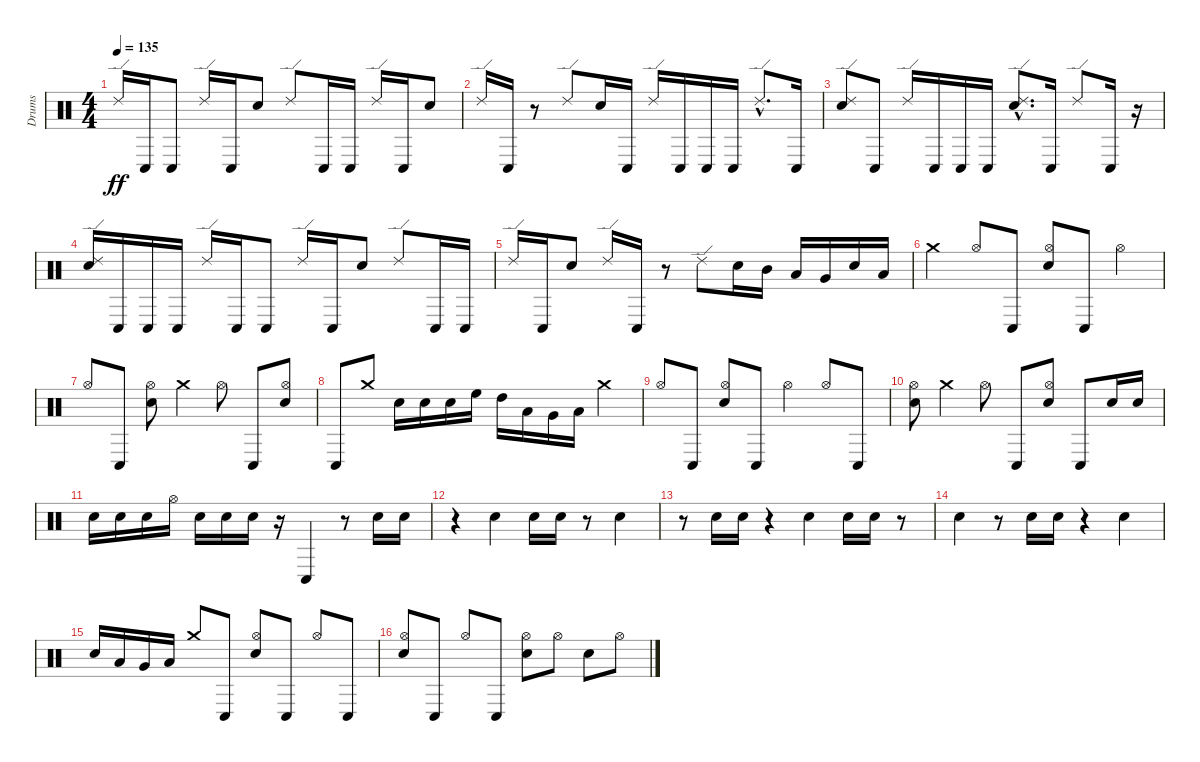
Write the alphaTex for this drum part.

\track ("Drums" "Drums") {instrument percussion}
\staff {score}
\articulation defaults
\ts (4 4)
\tempo 135
\clef neutral
\ks c "Ride (edge) 2".16{dy ff} "Conga low (hit)".16 "Conga low (hit)".8 "Ride (edge) 2".16 "Conga low (hit)".16 "Electric Snare (hit)".8 "Ride (edge) 2".8 "Conga low (hit)".16 "Conga low (hit)".16 "Ride (edge) 2".16 "Conga low (hit)".16 "Electric Snare (hit)".8
|
"Ride (edge) 2".16 "Conga low (hit)".16 r.8 "Ride (edge) 2".8 "Electric Snare (hit)".16 "Conga low (hit)".16 "Ride (edge) 2".16 "Conga low (hit)".16 "Conga low (hit)".16 "Conga low (hit)".16 "Ride (edge) 2"{hac}.8{d} "Conga low (hit)".16 |
("Electric Snare (hit)" "Ride (edge) 2").8 "Conga low (hit)".8 "Ride (edge) 2".16 "Conga low (hit)".16 "Conga low (hit)".16 "Conga low (hit)".16 ("Electric Snare (hit)"{hac} "Ride (edge) 2"{hac}).8{d} "Conga low (hit)".16 "Ride (edge) 2".8 "Conga low (hit)".16 r.16 |
("Electric Snare (hit)" "Ride (edge) 2").16 "Conga low (hit)".16 "Conga low (hit)".16 "Conga low (hit)".16 "Ride (edge) 2".16 "Conga low (hit)".16 "Conga low (hit)".8 "Ride (edge) 2".16 "Conga low (hit)".16 "Electric Snare (hit)".8 "Ride (edge) 2".8 "Conga low (hit)".16 "Conga low (hit)".16 |
"Ride (edge) 2".16 "Conga low (hit)".16 "Electric Snare (hit)".8 "Ride (edge) 2".16 "Conga low (hit)".16 r.8 "Ride (edge) 2".8 "Electric Snare (hit)".16 "Mid Tom (hit)".16 "Low Tom (hit)".16 "Very Low Tom (hit)".16 "Electric Snare (hit)".16 "Low Floor Tom (hit)".16 |
"Crash medium (hit)".4 "Hi-Hat (open)".8 "Conga low (hit)".8 ("Electric Snare (hit)" "Hi-Hat (open)").8 "Conga low (hit)".8 "Hi-Hat (open)".4 |
"Hi-Hat (open)".8 "Conga low (hit)".8 ("Electric Snare (hit)" "Hi-Hat (open)").8 "Crash medium (hit)".4 "Hi-Hat (open)".8 "Conga low (hit)".8 ("Electric Snare (hit)" "Hi-Hat (open)").8 |
"Conga low (hit)".8 "Crash medium (hit)".8 "Electric Snare (hit)".16 "Electric Snare (hit)".16 "Electric Snare (hit)".16 "High Floor Tom (hit)".16 "High Tom (hit)".16 "Low Tom (hit)".16 "Very Low Tom (hit)".16 "Low Floor Tom (hit)".16 "Crash medium (hit)".4 |
"Hi-Hat (open)".8 "Conga low (hit)".8 ("Electric Snare (hit)" "Hi-Hat (open)").8 "Conga low (hit)".8 "Hi-Hat (open)".4 "Hi-Hat (open)".8 "Conga low (hit)".8 |
("Electric Snare (hit)" "Hi-Hat (open)").8 "Crash medium (hit)".4 "Hi-Hat (open)".8 "Conga low (hit)".8 ("Electric Snare (hit)" "Hi-Hat (open)").8 "Conga low (hit)".8 "Electric Snare (hit)".16 "Electric Snare (hit)".16 |
"Electric Snare (hit)".16 "Electric Snare (hit)".16 "Electric Snare (hit)".16 "Hi-Hat (open)".16 "Electric Snare (hit)".16 "Electric Snare (hit)".16 "Electric Snare (hit)".16 r.16 "Conga low (hit)".4 r.8 "Electric Snare (hit)".16 "Electric Snare (hit)".16 |
r.4 "Electric Snare (hit)".4 "Electric Snare (hit)".16 "Electric Snare (hit)".16 r.8 "Electric Snare (hit)".4 |
r.8 "Electric Snare (hit)".16 "Electric Snare (hit)".16 r.4 "Electric Snare (hit)".4 "Electric Snare (hit)".16 "Electric Snare (hit)".16 r.8 |
"Electric Snare (hit)".4 r.8 "Electric Snare (hit)".16 "Electric Snare (hit)".16 r.4 "Electric Snare (hit)".4 |
"Electric Snare (hit)".16 "Low Tom (hit)".16 "Very Low Tom (hit)".16 "Low Floor Tom (hit)".16 "Crash medium (hit)".8 "Conga low (hit)".8 ("Electric Snare (hit)" "Hi-Hat (open)").8 "Conga low (hit)".8 "Hi-Hat (open)".8 "Conga low (hit)".8 |
("Electric Snare (hit)" "Hi-Hat (open)").8 "Conga low (hit)".8 "Hi-Hat (open)".8 "Conga low (hit)".8 ("Electric Snare (hit)" "Hi-Hat (open)").8 "Hi-Hat (open)".8 "Electric Snare (hit)".8 "Hi-Hat (open)".8
